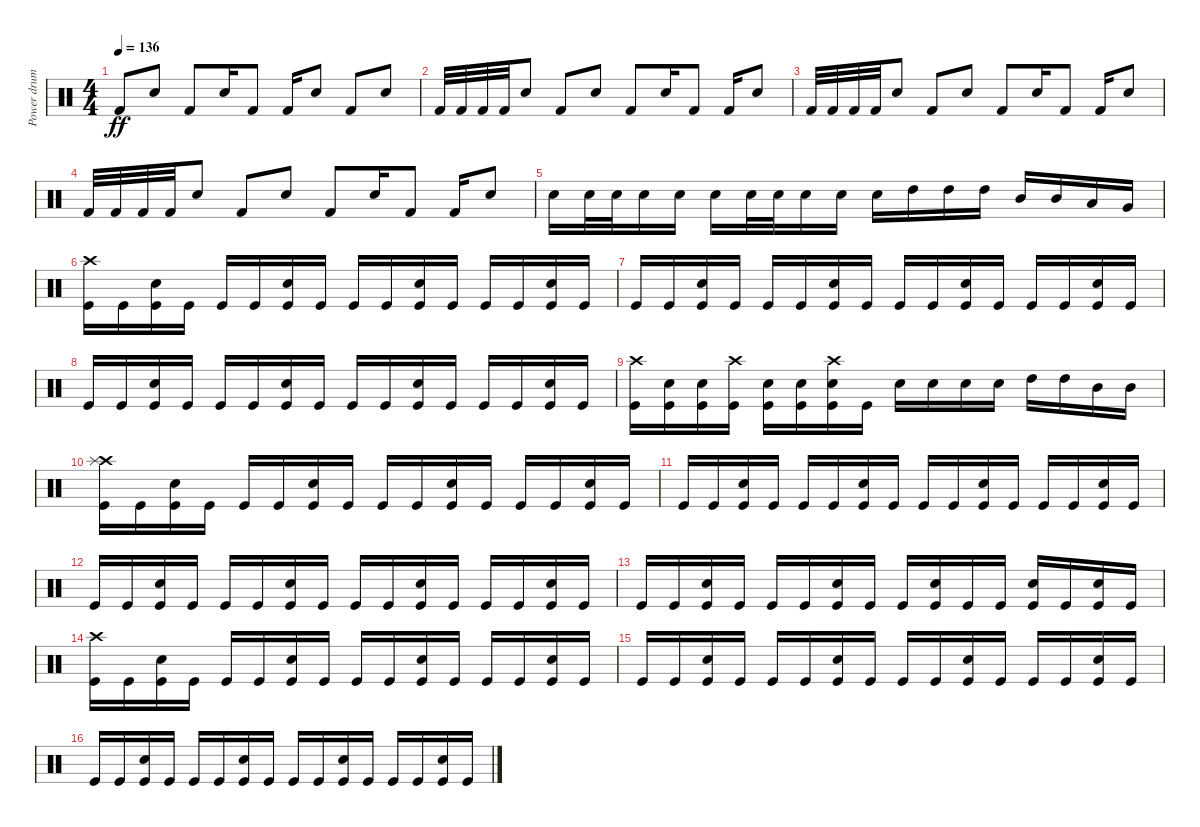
\track ("Power drums" "Power drum") {instrument percussion}
\staff {score}
\articulation defaults
\ts (4 4)
\tempo 136
\clef neutral
\ks c "Kick (hit) 2".8{dy ff} "Snare (hit) 2".8 "Kick (hit) 2".8 "Snare (hit) 2".16 "Kick (hit) 2".8 "Kick (hit) 2".16 "Snare (hit) 2".8 "Kick (hit) 2".8 "Snare (hit) 2".8
|
"Kick (hit) 2".32 "Kick (hit) 2".32 "Kick (hit) 2".32 "Kick (hit) 2".32 "Snare (hit) 2".8 "Kick (hit) 2".8 "Snare (hit) 2".8 "Kick (hit) 2".8 "Snare (hit) 2".16 "Kick (hit) 2".8 "Kick (hit) 2".16 "Snare (hit) 2".8 |
"Kick (hit) 2".32 "Kick (hit) 2".32 "Kick (hit) 2".32 "Kick (hit) 2".32 "Snare (hit) 2".8 "Kick (hit) 2".8 "Snare (hit) 2".8 "Kick (hit) 2".8 "Snare (hit) 2".16 "Kick (hit) 2".8 "Kick (hit) 2".16 "Snare (hit) 2".8 |
"Kick (hit) 2".32 "Kick (hit) 2".32 "Kick (hit) 2".32 "Kick (hit) 2".32 "Snare (hit) 2".8 "Kick (hit) 2".8 "Snare (hit) 2".8 "Kick (hit) 2".8 "Snare (hit) 2".16 "Kick (hit) 2".8 "Kick (hit) 2".16 "Snare (hit) 2".8 |
"Snare (hit) 2".16 "Snare (hit) 2".32 "Snare (hit) 2".32 "Snare (hit) 2".16 "Snare (hit) 2".16 "Snare (hit) 2".16 "Snare (hit) 2".32 "Snare (hit) 2".32 "Snare (hit) 2".16 "Snare (hit) 2".16 "Snare (hit) 2".16 "High Tom (hit)".16 "High Tom (hit)".16 "High Tom (hit)".16 "Mid Tom (hit)".16 "Mid Tom (hit)".16 "Low Tom (hit)".16 "Very Low Tom (hit)".16 |
("Kick (hit)" "Crash high (hit)").16 "Kick (hit)".16 ("Kick (hit)" "Snare (hit) 2").16 "Kick (hit)".16 "Kick (hit)".16 "Kick (hit)".16 ("Kick (hit)" "Snare (hit) 2").16 "Kick (hit)".16 "Kick (hit)".16 "Kick (hit)".16 ("Kick (hit)" "Snare (hit) 2").16 "Kick (hit)".16 "Kick (hit)".16 "Kick (hit)".16 ("Kick (hit)" "Snare (hit) 2").16 "Kick (hit)".16 |
"Kick (hit)".16 "Kick (hit)".16 ("Kick (hit)" "Snare (hit) 2").16 "Kick (hit)".16 "Kick (hit)".16 "Kick (hit)".16 ("Kick (hit)" "Snare (hit) 2").16 "Kick (hit)".16 "Kick (hit)".16 "Kick (hit)".16 ("Kick (hit)" "Snare (hit) 2").16 "Kick (hit)".16 "Kick (hit)".16 "Kick (hit)".16 ("Kick (hit)" "Snare (hit) 2").16 "Kick (hit)".16 |
"Kick (hit)".16 "Kick (hit)".16 ("Kick (hit)" "Snare (hit) 2").16 "Kick (hit)".16 "Kick (hit)".16 "Kick (hit)".16 ("Kick (hit)" "Snare (hit) 2").16 "Kick (hit)".16 "Kick (hit)".16 "Kick (hit)".16 ("Kick (hit)" "Snare (hit) 2").16 "Kick (hit)".16 "Kick (hit)".16 "Kick (hit)".16 ("Kick (hit)" "Snare (hit) 2").16 "Kick (hit)".16 |
("Kick (hit)" "Crash high (hit)").16 ("Kick (hit)" "Snare (hit) 2").16 ("Kick (hit)" "Snare (hit) 2").16 ("Kick (hit)" "Crash high (hit)").16 ("Kick (hit)" "Snare (hit) 2").16 ("Kick (hit)" "Snare (hit) 2").16 ("Kick (hit)" "Snare (hit) 2" "Crash high (hit)").16 "Kick (hit)".16 "Snare (hit) 2".16 "Snare (hit) 2".16 "Snare (hit) 2".16 "Snare (hit) 2".16 "High Tom (hit)".16 "High Tom (hit)".16 "Mid Tom (hit)".16 "Mid Tom (hit)".16 |
("Kick (hit)" "Crash high (hit)" "Splash (hit)").16 "Kick (hit)".16 ("Kick (hit)" "Snare (hit) 2").16 "Kick (hit)".16 "Kick (hit)".16 "Kick (hit)".16 ("Kick (hit)" "Snare (hit) 2").16 "Kick (hit)".16 "Kick (hit)".16 "Kick (hit)".16 ("Kick (hit)" "Snare (hit) 2").16 "Kick (hit)".16 "Kick (hit)".16 "Kick (hit)".16 ("Kick (hit)" "Snare (hit) 2").16 "Kick (hit)".16 |
"Kick (hit)".16 "Kick (hit)".16 ("Kick (hit)" "Snare (hit) 2").16 "Kick (hit)".16 "Kick (hit)".16 "Kick (hit)".16 ("Kick (hit)" "Snare (hit) 2").16 "Kick (hit)".16 "Kick (hit)".16 "Kick (hit)".16 ("Kick (hit)" "Snare (hit) 2").16 "Kick (hit)".16 "Kick (hit)".16 "Kick (hit)".16 ("Kick (hit)" "Snare (hit) 2").16 "Kick (hit)".16 |
"Kick (hit)".16 "Kick (hit)".16 ("Kick (hit)" "Snare (hit) 2").16 "Kick (hit)".16 "Kick (hit)".16 "Kick (hit)".16 ("Kick (hit)" "Snare (hit) 2").16 "Kick (hit)".16 "Kick (hit)".16 "Kick (hit)".16 ("Kick (hit)" "Snare (hit) 2").16 "Kick (hit)".16 "Kick (hit)".16 "Kick (hit)".16 ("Kick (hit)" "Snare (hit) 2").16 "Kick (hit)".16 |
"Kick (hit)".16 "Kick (hit)".16 ("Kick (hit)" "Snare (hit) 2").16 "Kick (hit)".16 "Kick (hit)".16 "Kick (hit)".16 ("Kick (hit)" "Snare (hit) 2").16 "Kick (hit)".16 "Kick (hit)".16 ("Kick (hit)" "Snare (hit) 2").16 "Kick (hit)".16 "Kick (hit)".16 ("Kick (hit)" "Snare (hit) 2").16 "Kick (hit)".16 ("Kick (hit)" "Snare (hit) 2").16 "Kick (hit)".16 |
("Kick (hit)" "Crash high (hit)").16 "Kick (hit)".16 ("Kick (hit)" "Snare (hit) 2").16 "Kick (hit)".16 "Kick (hit)".16 "Kick (hit)".16 ("Kick (hit)" "Snare (hit) 2").16 "Kick (hit)".16 "Kick (hit)".16 "Kick (hit)".16 ("Kick (hit)" "Snare (hit) 2").16 "Kick (hit)".16 "Kick (hit)".16 "Kick (hit)".16 ("Kick (hit)" "Snare (hit) 2").16 "Kick (hit)".16 |
"Kick (hit)".16 "Kick (hit)".16 ("Kick (hit)" "Snare (hit) 2").16 "Kick (hit)".16 "Kick (hit)".16 "Kick (hit)".16 ("Kick (hit)" "Snare (hit) 2").16 "Kick (hit)".16 "Kick (hit)".16 "Kick (hit)".16 ("Kick (hit)" "Snare (hit) 2").16 "Kick (hit)".16 "Kick (hit)".16 "Kick (hit)".16 ("Kick (hit)" "Snare (hit) 2").16 "Kick (hit)".16 |
"Kick (hit)".16 "Kick (hit)".16 ("Kick (hit)" "Snare (hit) 2").16 "Kick (hit)".16 "Kick (hit)".16 "Kick (hit)".16 ("Kick (hit)" "Snare (hit) 2").16 "Kick (hit)".16 "Kick (hit)".16 "Kick (hit)".16 ("Kick (hit)" "Snare (hit) 2").16 "Kick (hit)".16 "Kick (hit)".16 "Kick (hit)".16 ("Kick (hit)" "Snare (hit) 2").16 "Kick (hit)".16
